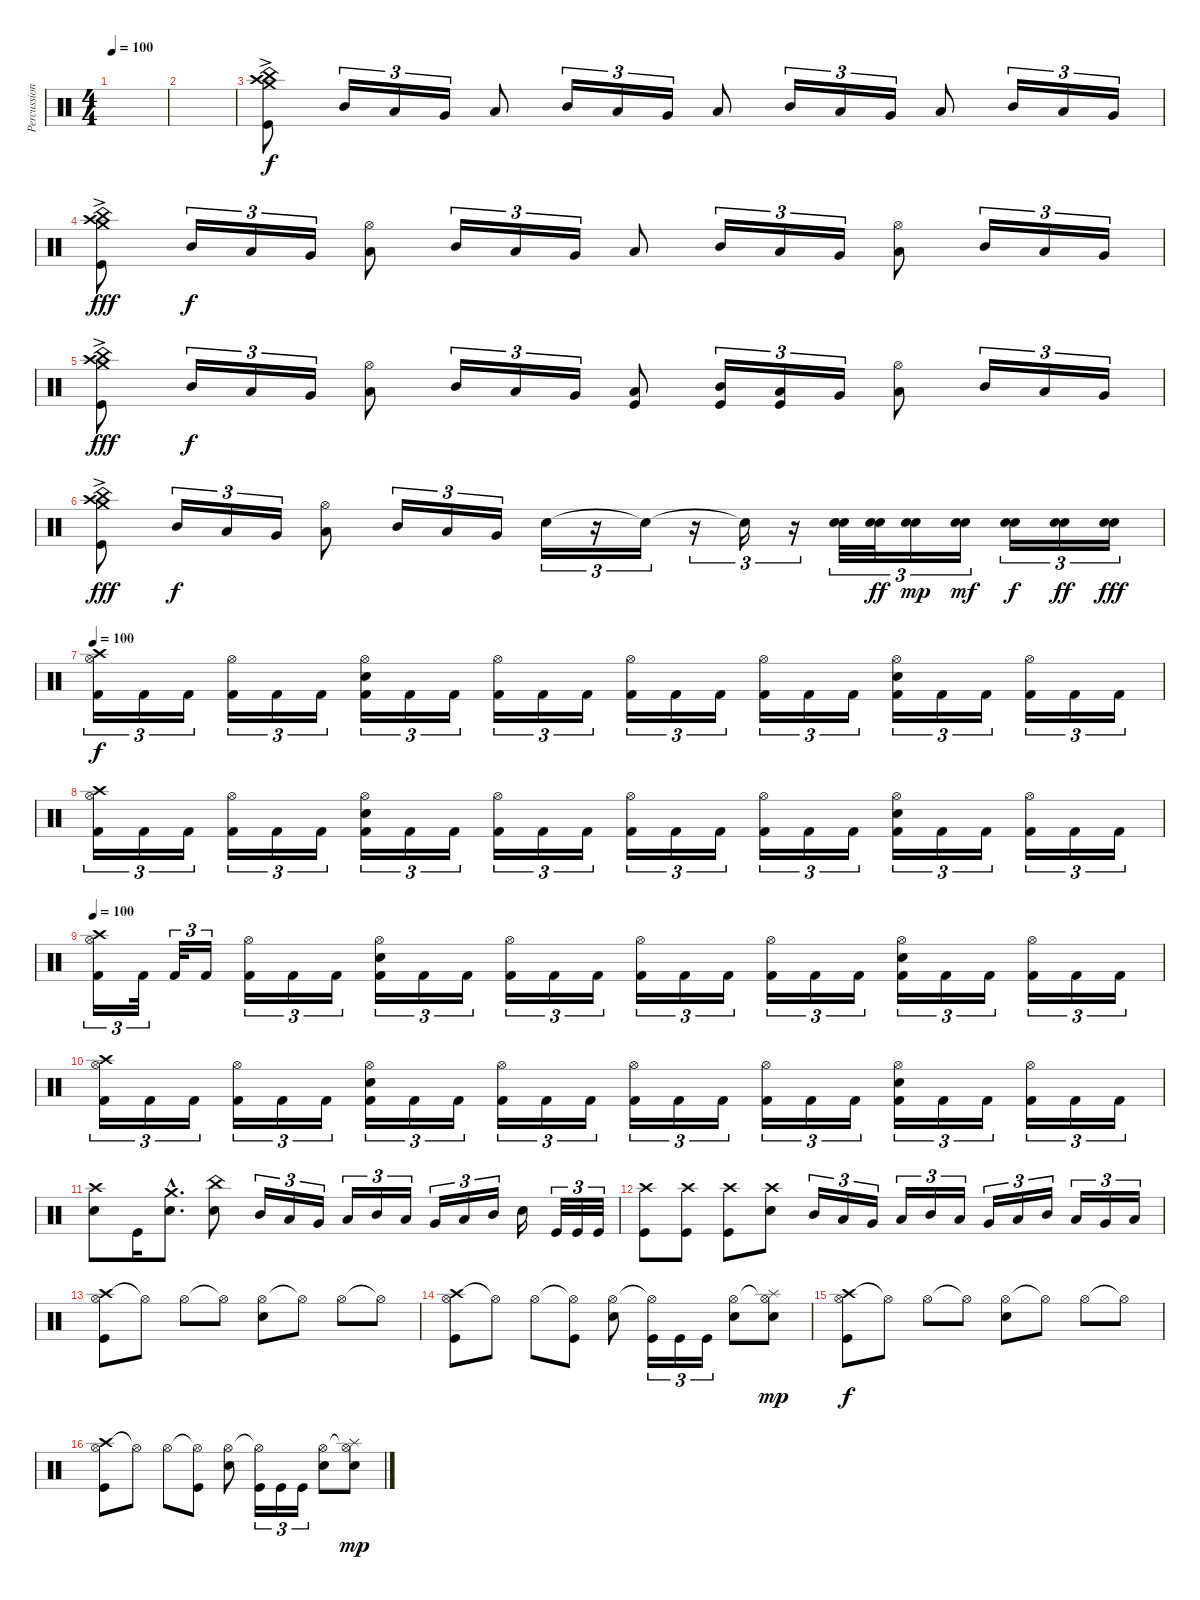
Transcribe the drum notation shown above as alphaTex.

\track ("Percussions" "Percussion") {instrument percussion}
\staff {score}
\articulation defaults
\ts (4 4)
\tempo 100
\clef neutral
\ks c
|
|
("China (hit)" "Crash medium (hit)" "Crash high (hit)"{ac} "Kick (hit)").8 "Mid Tom (hit)".16{tu (3 2) dy f} "Low Tom (hit)".16{tu (3 2)} "Very Low Tom (hit)".16{tu (3 2)} "Low Floor Tom (hit)".8 "Mid Tom (hit)".16{tu (3 2)} "Low Tom (hit)".16{tu (3 2)} "Very Low Tom (hit)".16{tu (3 2)} "Low Floor Tom (hit)".8 "Mid Tom (hit)".16{tu (3 2)} "Low Tom (hit)".16{tu (3 2)} "Very Low Tom (hit)".16{tu (3 2)} "Low Floor Tom (hit)".8 "Mid Tom (hit)".16{tu (3 2)} "Low Tom (hit)".16{tu (3 2)} "Very Low Tom (hit)".16{tu (3 2)} |
("China (hit)" "Crash medium (hit)" "Crash high (hit)"{ac} "Kick (hit)").8{dy fff} "Mid Tom (hit)".16{tu (3 2) dy f} "Low Tom (hit)".16{tu (3 2)} "Very Low Tom (hit)".16{tu (3 2)} ("Hi-Hat (open)" "Low Floor Tom (hit)").8 "Mid Tom (hit)".16{tu (3 2)} "Low Tom (hit)".16{tu (3 2)} "Very Low Tom (hit)".16{tu (3 2)} "Low Floor Tom (hit)".8 "Mid Tom (hit)".16{tu (3 2)} "Low Tom (hit)".16{tu (3 2)} "Very Low Tom (hit)".16{tu (3 2)} ("Hi-Hat (open)" "Low Floor Tom (hit)").8 "Mid Tom (hit)".16{tu (3 2)} "Low Tom (hit)".16{tu (3 2)} "Very Low Tom (hit)".16{tu (3 2)} |
("China (hit)" "Crash medium (hit)" "Crash high (hit)"{ac} "Kick (hit)").8{dy fff} "Mid Tom (hit)".16{tu (3 2) dy f} "Low Tom (hit)".16{tu (3 2)} "Very Low Tom (hit)".16{tu (3 2)} ("Hi-Hat (open)" "Low Floor Tom (hit)").8 "Mid Tom (hit)".16{tu (3 2)} "Low Tom (hit)".16{tu (3 2)} "Very Low Tom (hit)".16{tu (3 2)} ("Low Floor Tom (hit)" "Kick (hit)").8 ("Mid Tom (hit)" "Kick (hit)").16{tu (3 2)} ("Low Tom (hit)" "Kick (hit)").16{tu (3 2)} "Very Low Tom (hit)".16{tu (3 2)} ("Hi-Hat (open)" "Low Floor Tom (hit)").8 "Mid Tom (hit)".16{tu (3 2)} "Low Tom (hit)".16{tu (3 2)} "Very Low Tom (hit)".16{tu (3 2)} |
("China (hit)" "Crash medium (hit)" "Crash high (hit)"{ac} "Kick (hit)").8{dy fff} "Mid Tom (hit)".16{tu (3 2) dy f} "Low Tom (hit)".16{tu (3 2)} "Very Low Tom (hit)".16{tu (3 2)} ("Hi-Hat (open)" "Low Floor Tom (hit)").8 "Mid Tom (hit)".16{tu (3 2)} "Low Tom (hit)".16{tu (3 2)} "Very Low Tom (hit)".16{tu (3 2)} "Snare (hit) 2".16{tu (3 2)} r.16{tu (3 2)} "Electric Snare (hit)"{t}.16{tu (3 2)} r.16{tu (3 2)} "Electric Snare (hit)"{t}.16{tu (3 2)} r.16{tu (3 2)} ("Snare (hit) 2" "Snare (hit) 2").32{tu (3 2)} ("Snare (hit) 2" "Snare (hit) 2").32{tu (3 2) dy ff} ("Electric Snare (hit)" "Electric Snare (hit)").16{tu (3 2) dy mp} ("Electric Snare (hit)" "Electric Snare (hit)").16{tu (3 2) dy mf} ("Electric Snare (hit)" "Electric Snare (hit)").16{tu (3 2) dy f} ("Electric Snare (hit)" "Electric Snare (hit)").16{tu (3 2) dy ff} ("Electric Snare (hit)" "Electric Snare (hit)").16{tu (3 2) dy fff} |
\tempo 100
("Hi-Hat (open)" "Crash high (hit)" "Kick (hit) 2").16{tu (3 2) dy f} "Kick (hit) 2".16{tu (3 2)} "Kick (hit) 2".16{tu (3 2)} ("Hi-Hat (open)" "Kick (hit) 2").16{tu (3 2)} "Kick (hit) 2".16{tu (3 2)} "Kick (hit) 2".16{tu (3 2)} ("Hi-Hat (open)" "Snare (hit) 2" "Kick (hit) 2").16{tu (3 2)} "Kick (hit) 2".16{tu (3 2)} "Kick (hit) 2".16{tu (3 2)} ("Hi-Hat (open)" "Kick (hit) 2").16{tu (3 2)} "Kick (hit) 2".16{tu (3 2)} "Kick (hit) 2".16{tu (3 2)} ("Hi-Hat (open)" "Kick (hit) 2").16{tu (3 2)} "Kick (hit) 2".16{tu (3 2)} "Kick (hit) 2".16{tu (3 2)} ("Hi-Hat (open)" "Kick (hit) 2").16{tu (3 2)} "Kick (hit) 2".16{tu (3 2)} "Kick (hit) 2".16{tu (3 2)} ("Hi-Hat (open)" "Electric Snare (hit)" "Kick (hit) 2").16{tu (3 2)} "Kick (hit) 2".16{tu (3 2)} "Kick (hit) 2".16{tu (3 2)} ("Hi-Hat (open)" "Kick (hit) 2").16{tu (3 2)} "Kick (hit) 2".16{tu (3 2)} "Kick (hit) 2".16{tu (3 2)} |
("Hi-Hat (open)" "Crash high (hit)" "Kick (hit) 2").16{tu (3 2)} "Kick (hit) 2".16{tu (3 2)} "Kick (hit) 2".16{tu (3 2)} ("Hi-Hat (open)" "Kick (hit) 2").16{tu (3 2)} "Kick (hit) 2".16{tu (3 2)} "Kick (hit) 2".16{tu (3 2)} ("Hi-Hat (open)" "Snare (hit) 2" "Kick (hit) 2").16{tu (3 2)} "Kick (hit) 2".16{tu (3 2)} "Kick (hit) 2".16{tu (3 2)} ("Hi-Hat (open)" "Kick (hit) 2").16{tu (3 2)} "Kick (hit) 2".16{tu (3 2)} "Kick (hit) 2".16{tu (3 2)} ("Hi-Hat (open)" "Kick (hit) 2").16{tu (3 2)} "Kick (hit) 2".16{tu (3 2)} "Kick (hit) 2".16{tu (3 2)} ("Hi-Hat (open)" "Kick (hit) 2").16{tu (3 2)} "Kick (hit) 2".16{tu (3 2)} "Kick (hit) 2".16{tu (3 2)} ("Hi-Hat (open)" "Electric Snare (hit)" "Kick (hit) 2").16{tu (3 2)} "Kick (hit) 2".16{tu (3 2)} "Kick (hit) 2".16{tu (3 2)} ("Hi-Hat (open)" "Kick (hit) 2").16{tu (3 2)} "Kick (hit) 2".16{tu (3 2)} "Kick (hit) 2".16{tu (3 2)} |
\tempo 100
("Hi-Hat (open)" "Crash high (hit)" "Kick (hit) 2").16{tu (3 2)} "Kick (hit) 2".32{tu (3 2)} "Kick (hit) 2".32{tu (3 2)} "Kick (hit) 2".16{tu (3 2)} ("Hi-Hat (open)" "Kick (hit) 2").16{tu (3 2)} "Kick (hit) 2".16{tu (3 2)} "Kick (hit) 2".16{tu (3 2)} ("Hi-Hat (open)" "Snare (hit) 2" "Kick (hit) 2").16{tu (3 2)} "Kick (hit) 2".16{tu (3 2)} "Kick (hit) 2".16{tu (3 2)} ("Hi-Hat (open)" "Kick (hit) 2").16{tu (3 2)} "Kick (hit) 2".16{tu (3 2)} "Kick (hit) 2".16{tu (3 2)} ("Hi-Hat (open)" "Kick (hit) 2").16{tu (3 2)} "Kick (hit) 2".16{tu (3 2)} "Kick (hit) 2".16{tu (3 2)} ("Hi-Hat (open)" "Kick (hit) 2").16{tu (3 2)} "Kick (hit) 2".16{tu (3 2)} "Kick (hit) 2".16{tu (3 2)} ("Hi-Hat (open)" "Electric Snare (hit)" "Kick (hit) 2").16{tu (3 2)} "Kick (hit) 2".16{tu (3 2)} "Kick (hit) 2".16{tu (3 2)} ("Hi-Hat (open)" "Kick (hit) 2").16{tu (3 2)} "Kick (hit) 2".16{tu (3 2)} "Kick (hit) 2".16{tu (3 2)} |
("Hi-Hat (open)" "Crash high (hit)" "Kick (hit) 2").16{tu (3 2)} "Kick (hit) 2".16{tu (3 2)} "Kick (hit) 2".16{tu (3 2)} ("Hi-Hat (open)" "Kick (hit) 2").16{tu (3 2)} "Kick (hit) 2".16{tu (3 2)} "Kick (hit) 2".16{tu (3 2)} ("Hi-Hat (open)" "Snare (hit) 2" "Kick (hit) 2").16{tu (3 2)} "Kick (hit) 2".16{tu (3 2)} "Kick (hit) 2".16{tu (3 2)} ("Hi-Hat (open)" "Kick (hit) 2").16{tu (3 2)} "Kick (hit) 2".16{tu (3 2)} "Kick (hit) 2".16{tu (3 2)} ("Hi-Hat (open)" "Kick (hit) 2").16{tu (3 2)} "Kick (hit) 2".16{tu (3 2)} "Kick (hit) 2".16{tu (3 2)} ("Hi-Hat (open)" "Kick (hit) 2").16{tu (3 2)} "Kick (hit) 2".16{tu (3 2)} "Kick (hit) 2".16{tu (3 2)} ("Hi-Hat (open)" "Electric Snare (hit)" "Kick (hit) 2").16{tu (3 2)} "Kick (hit) 2".16{tu (3 2)} "Kick (hit) 2".16{tu (3 2)} ("Hi-Hat (open)" "Kick (hit) 2").16{tu (3 2)} "Kick (hit) 2".16{tu (3 2)} "Kick (hit) 2".16{tu (3 2)} |
("Crash high (hit)" "Snare (hit) 2").8 "Kick (hit)".16 ("Crash medium (hit)"{hac} "Snare (hit) 2"{hac}).8{d} ("China (hit)" "Snare (hit) 2").8 "Mid Tom (hit)".16{tu (3 2)} "Low Tom (hit)".16{tu (3 2)} "Very Low Tom (hit)".16{tu (3 2)} "Low Floor Tom (hit)".16{tu (3 2)} "Mid Tom (hit)".16{tu (3 2)} "Low Tom (hit)".16{tu (3 2)} "Very Low Tom (hit)".16{tu (3 2)} "Low Floor Tom (hit)".16{tu (3 2)} "Mid Tom (hit)".16{tu (3 2)} "Snare (hit) 2".16 "Kick (hit)".32{tu (3 2)} "Kick (hit)".32{tu (3 2)} "Kick (hit)".32{tu (3 2)} |
("Crash high (hit)" "Kick (hit)").8 ("Crash high (hit)" "Kick (hit)").8 ("Crash high (hit)" "Kick (hit)").8 ("Crash high (hit)" "Snare (hit) 2").8 "Mid Tom (hit)".16{tu (3 2)} "Low Tom (hit)".16{tu (3 2)} "Very Low Tom (hit)".16{tu (3 2)} "Low Floor Tom (hit)".16{tu (3 2)} "Mid Tom (hit)".16{tu (3 2)} "Low Tom (hit)".16{tu (3 2)} "Very Low Tom (hit)".16{tu (3 2)} "Low Floor Tom (hit)".16{tu (3 2)} "Mid Tom (hit)".16{tu (3 2)} "Low Tom (hit)".16{tu (3 2)} "Very Low Tom (hit)".16{tu (3 2)} "Low Floor Tom (hit)".16{tu (3 2)} |
("Crash high (hit)" "Hi-Hat (open)" "Kick (hit)").8 "Hi-Hat (open)"{t}.8 "Hi-Hat (open)".8 "Hi-Hat (open)"{t}.8 ("Hi-Hat (open)" "Snare (hit) 2").8 "Hi-Hat (open)"{t}.8 "Hi-Hat (open)".8 "Hi-Hat (open)"{t}.8 |
("Crash high (hit)" "Hi-Hat (open)" "Kick (hit)").8 "Hi-Hat (open)"{t}.8 "Hi-Hat (open)".8 ("Hi-Hat (open)"{t} "Kick (hit)").8 ("Hi-Hat (open)" "Snare (hit) 2").8 ("Hi-Hat (open)"{t} "Kick (hit)").16{tu (3 2)} "Kick (hit)".16{tu (3 2)} "Kick (hit)".16{tu (3 2)} ("Hi-Hat (open)" "Snare (hit) 2").8 ("Hi-Hat (open)"{t} "Splash (hit)" "Snare (hit) 2").8{dy mp} |
("Crash high (hit)" "Hi-Hat (open)" "Kick (hit)").8{dy f} "Hi-Hat (open)"{t}.8 "Hi-Hat (open)".8 "Hi-Hat (open)"{t}.8 ("Hi-Hat (open)" "Snare (hit) 2").8 "Hi-Hat (open)"{t}.8 "Hi-Hat (open)".8 "Hi-Hat (open)"{t}.8 |
("Crash high (hit)" "Hi-Hat (open)" "Kick (hit)").8 "Hi-Hat (open)"{t}.8 "Hi-Hat (open)".8 ("Hi-Hat (open)"{t} "Kick (hit)").8 ("Hi-Hat (open)" "Snare (hit) 2").8 ("Hi-Hat (open)"{t} "Kick (hit)").16{tu (3 2)} "Kick (hit)".16{tu (3 2)} "Kick (hit)".16{tu (3 2)} ("Hi-Hat (open)" "Snare (hit) 2").8 ("Hi-Hat (open)"{t} "Splash (hit)" "Snare (hit) 2").8{dy mp}
